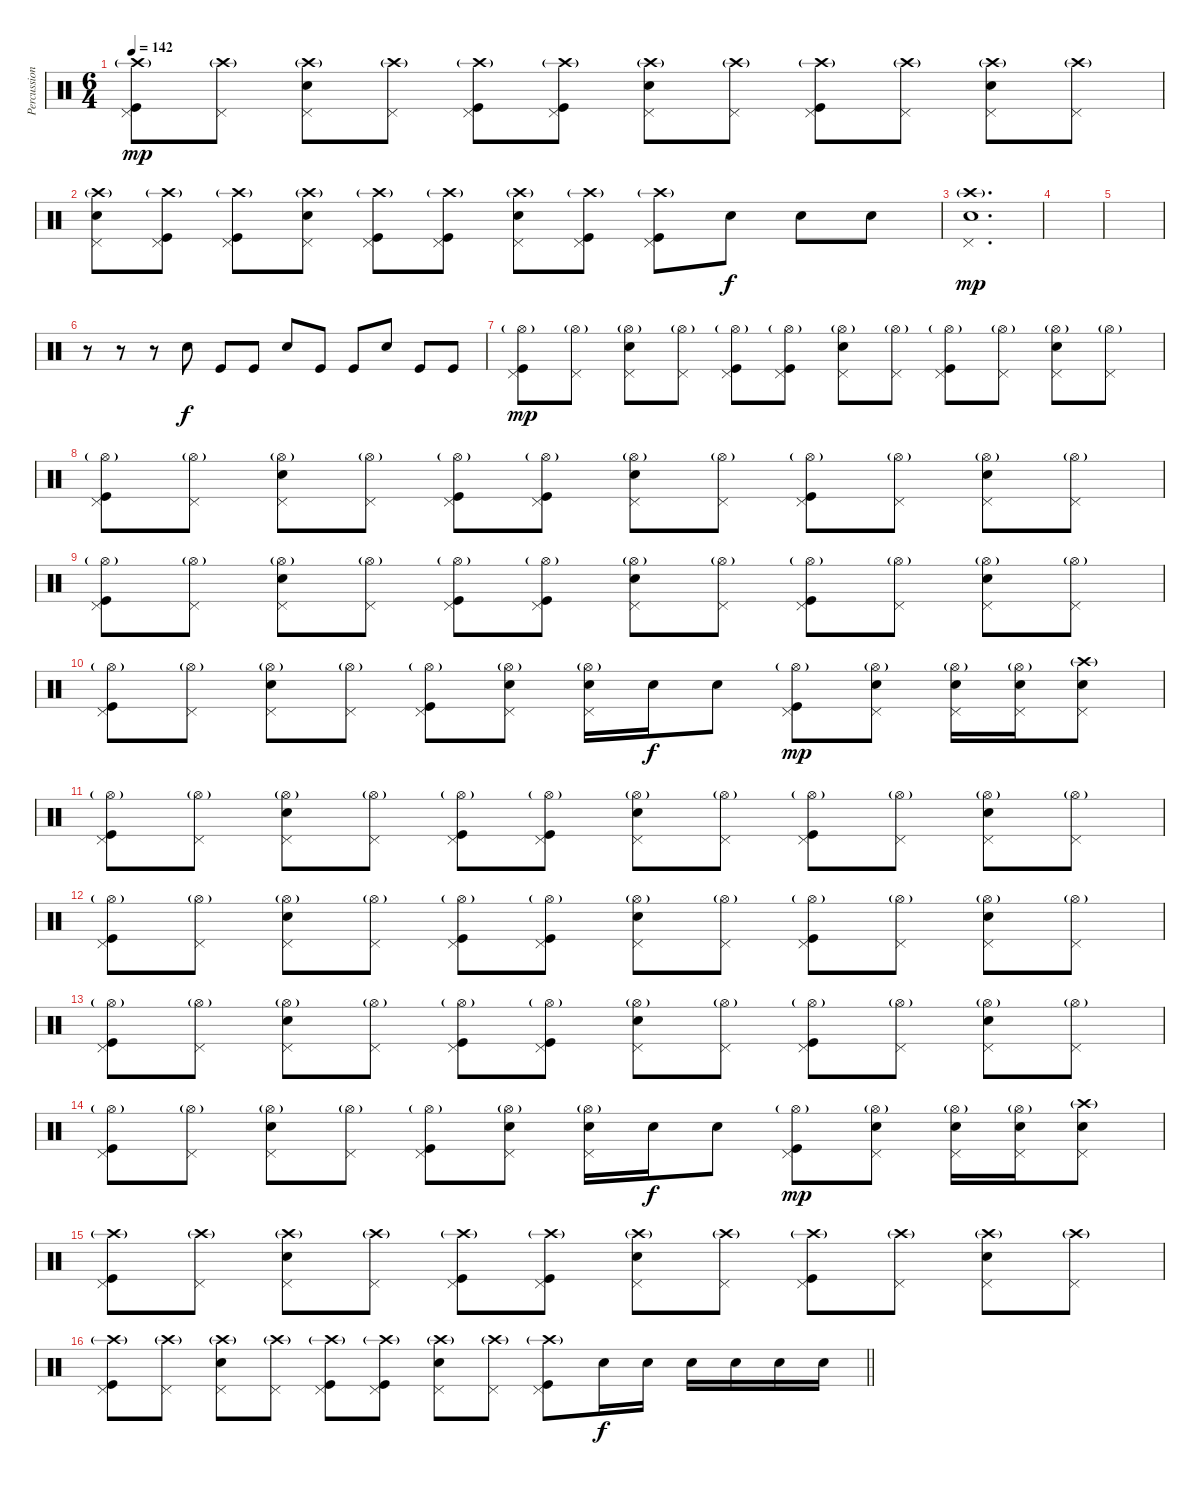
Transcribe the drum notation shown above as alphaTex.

\track ("Percussions" "Percussion") {instrument percussion}
\staff {score}
\articulation defaults
\ts (6 4)
\tempo 142
\clef neutral
\ks c
("Crash high (hit)"{g} "Pedal Hi-Hat (hit)" "Kick (hit)").8{dy mp} ("Crash high (hit)"{g} "Pedal Hi-Hat (hit)").8 ("Crash high (hit)"{g} "Pedal Hi-Hat (hit)" "Electric Snare (hit)").8 ("Crash high (hit)"{g} "Pedal Hi-Hat (hit)").8 ("Crash high (hit)"{g} "Pedal Hi-Hat (hit)" "Kick (hit)").8 ("Crash high (hit)"{g} "Pedal Hi-Hat (hit)" "Kick (hit)").8 ("Crash high (hit)"{g} "Pedal Hi-Hat (hit)" "Electric Snare (hit)").8 ("Crash high (hit)"{g} "Pedal Hi-Hat (hit)").8 ("Crash high (hit)"{g} "Pedal Hi-Hat (hit)" "Kick (hit)").8 ("Crash high (hit)"{g} "Pedal Hi-Hat (hit)").8 ("Crash high (hit)"{g} "Pedal Hi-Hat (hit)" "Electric Snare (hit)").8 ("Crash high (hit)"{g} "Pedal Hi-Hat (hit)").8 |
("Crash high (hit)"{g} "Pedal Hi-Hat (hit)" "Electric Snare (hit)").8 ("Crash high (hit)"{g} "Pedal Hi-Hat (hit)" "Kick (hit)").8 ("Crash high (hit)"{g} "Pedal Hi-Hat (hit)" "Kick (hit)").8 ("Crash high (hit)"{g} "Pedal Hi-Hat (hit)" "Electric Snare (hit)").8 ("Crash high (hit)"{g} "Pedal Hi-Hat (hit)" "Kick (hit)").8 ("Crash high (hit)"{g} "Pedal Hi-Hat (hit)" "Kick (hit)").8 ("Crash high (hit)"{g} "Pedal Hi-Hat (hit)" "Electric Snare (hit)").8 ("Crash high (hit)"{g} "Pedal Hi-Hat (hit)" "Kick (hit)").8 ("Crash high (hit)"{g} "Pedal Hi-Hat (hit)" "Kick (hit)").8 "Snare (hit) 2".8{dy f} "Snare (hit) 2".8 "Snare (hit) 2".8 |
("Crash high (hit)"{g} "Pedal Hi-Hat (hit)" "Electric Snare (hit)").1{d dy mp} |
|
|
r.8 r.8 r.8 "Electric Snare (hit)".8{dy f} "Kick (hit)".8 "Kick (hit)".8 "Electric Snare (hit)".8 "Kick (hit)".8 "Kick (hit)".8 "Electric Snare (hit)".8 "Kick (hit)".8 "Kick (hit)".8 |
("Hi-Hat (open)"{g} "Pedal Hi-Hat (hit)" "Kick (hit)").8{dy mp} ("Hi-Hat (open)"{g} "Pedal Hi-Hat (hit)").8 ("Hi-Hat (open)"{g} "Pedal Hi-Hat (hit)" "Electric Snare (hit)").8 ("Hi-Hat (open)"{g} "Pedal Hi-Hat (hit)").8 ("Hi-Hat (open)"{g} "Pedal Hi-Hat (hit)" "Kick (hit)").8 ("Hi-Hat (open)"{g} "Pedal Hi-Hat (hit)" "Kick (hit)").8 ("Hi-Hat (open)"{g} "Pedal Hi-Hat (hit)" "Electric Snare (hit)").8 ("Hi-Hat (open)"{g} "Pedal Hi-Hat (hit)").8 ("Hi-Hat (open)"{g} "Pedal Hi-Hat (hit)" "Kick (hit)").8 ("Hi-Hat (open)"{g} "Pedal Hi-Hat (hit)").8 ("Hi-Hat (open)"{g} "Pedal Hi-Hat (hit)" "Electric Snare (hit)").8 ("Hi-Hat (open)"{g} "Pedal Hi-Hat (hit)").8 |
("Hi-Hat (open)"{g} "Pedal Hi-Hat (hit)" "Kick (hit)").8 ("Hi-Hat (open)"{g} "Pedal Hi-Hat (hit)").8 ("Hi-Hat (open)"{g} "Pedal Hi-Hat (hit)" "Electric Snare (hit)").8 ("Hi-Hat (open)"{g} "Pedal Hi-Hat (hit)").8 ("Hi-Hat (open)"{g} "Pedal Hi-Hat (hit)" "Kick (hit)").8 ("Hi-Hat (open)"{g} "Pedal Hi-Hat (hit)" "Kick (hit)").8 ("Hi-Hat (open)"{g} "Pedal Hi-Hat (hit)" "Electric Snare (hit)").8 ("Hi-Hat (open)"{g} "Pedal Hi-Hat (hit)").8 ("Hi-Hat (open)"{g} "Pedal Hi-Hat (hit)" "Kick (hit)").8 ("Hi-Hat (open)"{g} "Pedal Hi-Hat (hit)").8 ("Hi-Hat (open)"{g} "Pedal Hi-Hat (hit)" "Electric Snare (hit)").8 ("Hi-Hat (open)"{g} "Pedal Hi-Hat (hit)").8 |
("Hi-Hat (open)"{g} "Pedal Hi-Hat (hit)" "Kick (hit)").8 ("Hi-Hat (open)"{g} "Pedal Hi-Hat (hit)").8 ("Hi-Hat (open)"{g} "Pedal Hi-Hat (hit)" "Electric Snare (hit)").8 ("Hi-Hat (open)"{g} "Pedal Hi-Hat (hit)").8 ("Hi-Hat (open)"{g} "Pedal Hi-Hat (hit)" "Kick (hit)").8 ("Hi-Hat (open)"{g} "Pedal Hi-Hat (hit)" "Kick (hit)").8 ("Hi-Hat (open)"{g} "Pedal Hi-Hat (hit)" "Electric Snare (hit)").8 ("Hi-Hat (open)"{g} "Pedal Hi-Hat (hit)").8 ("Hi-Hat (open)"{g} "Pedal Hi-Hat (hit)" "Kick (hit)").8 ("Hi-Hat (open)"{g} "Pedal Hi-Hat (hit)").8 ("Hi-Hat (open)"{g} "Pedal Hi-Hat (hit)" "Electric Snare (hit)").8 ("Hi-Hat (open)"{g} "Pedal Hi-Hat (hit)").8 |
("Hi-Hat (open)"{g} "Pedal Hi-Hat (hit)" "Kick (hit)").8 ("Hi-Hat (open)"{g} "Pedal Hi-Hat (hit)").8 ("Hi-Hat (open)"{g} "Pedal Hi-Hat (hit)" "Electric Snare (hit)").8 ("Hi-Hat (open)"{g} "Pedal Hi-Hat (hit)").8 ("Hi-Hat (open)"{g} "Pedal Hi-Hat (hit)" "Kick (hit)").8 ("Hi-Hat (open)"{g} "Pedal Hi-Hat (hit)" "Electric Snare (hit)").8 ("Hi-Hat (open)"{g} "Pedal Hi-Hat (hit)" "Electric Snare (hit)").16 "Electric Snare (hit)".16{dy f} "Electric Snare (hit)".8 ("Hi-Hat (open)"{g} "Pedal Hi-Hat (hit)" "Kick (hit)").8{dy mp} ("Hi-Hat (open)"{g} "Pedal Hi-Hat (hit)" "Electric Snare (hit)").8 ("Hi-Hat (open)"{g} "Pedal Hi-Hat (hit)" "Electric Snare (hit)").16 ("Hi-Hat (open)"{g} "Pedal Hi-Hat (hit)" "Electric Snare (hit)").16 ("Crash high (hit)"{g} "Pedal Hi-Hat (hit)" "Electric Snare (hit)").8 |
("Hi-Hat (open)"{g} "Pedal Hi-Hat (hit)" "Kick (hit)").8 ("Hi-Hat (open)"{g} "Pedal Hi-Hat (hit)").8 ("Hi-Hat (open)"{g} "Pedal Hi-Hat (hit)" "Electric Snare (hit)").8 ("Hi-Hat (open)"{g} "Pedal Hi-Hat (hit)").8 ("Hi-Hat (open)"{g} "Pedal Hi-Hat (hit)" "Kick (hit)").8 ("Hi-Hat (open)"{g} "Pedal Hi-Hat (hit)" "Kick (hit)").8 ("Hi-Hat (open)"{g} "Pedal Hi-Hat (hit)" "Electric Snare (hit)").8 ("Hi-Hat (open)"{g} "Pedal Hi-Hat (hit)").8 ("Hi-Hat (open)"{g} "Pedal Hi-Hat (hit)" "Kick (hit)").8 ("Hi-Hat (open)"{g} "Pedal Hi-Hat (hit)").8 ("Hi-Hat (open)"{g} "Pedal Hi-Hat (hit)" "Electric Snare (hit)").8 ("Hi-Hat (open)"{g} "Pedal Hi-Hat (hit)").8 |
("Hi-Hat (open)"{g} "Pedal Hi-Hat (hit)" "Kick (hit)").8 ("Hi-Hat (open)"{g} "Pedal Hi-Hat (hit)").8 ("Hi-Hat (open)"{g} "Pedal Hi-Hat (hit)" "Electric Snare (hit)").8 ("Hi-Hat (open)"{g} "Pedal Hi-Hat (hit)").8 ("Hi-Hat (open)"{g} "Pedal Hi-Hat (hit)" "Kick (hit)").8 ("Hi-Hat (open)"{g} "Pedal Hi-Hat (hit)" "Kick (hit)").8 ("Hi-Hat (open)"{g} "Pedal Hi-Hat (hit)" "Electric Snare (hit)").8 ("Hi-Hat (open)"{g} "Pedal Hi-Hat (hit)").8 ("Hi-Hat (open)"{g} "Pedal Hi-Hat (hit)" "Kick (hit)").8 ("Hi-Hat (open)"{g} "Pedal Hi-Hat (hit)").8 ("Hi-Hat (open)"{g} "Pedal Hi-Hat (hit)" "Electric Snare (hit)").8 ("Hi-Hat (open)"{g} "Pedal Hi-Hat (hit)").8 |
("Hi-Hat (open)"{g} "Pedal Hi-Hat (hit)" "Kick (hit)").8 ("Hi-Hat (open)"{g} "Pedal Hi-Hat (hit)").8 ("Hi-Hat (open)"{g} "Pedal Hi-Hat (hit)" "Electric Snare (hit)").8 ("Hi-Hat (open)"{g} "Pedal Hi-Hat (hit)").8 ("Hi-Hat (open)"{g} "Pedal Hi-Hat (hit)" "Kick (hit)").8 ("Hi-Hat (open)"{g} "Pedal Hi-Hat (hit)" "Kick (hit)").8 ("Hi-Hat (open)"{g} "Pedal Hi-Hat (hit)" "Electric Snare (hit)").8 ("Hi-Hat (open)"{g} "Pedal Hi-Hat (hit)").8 ("Hi-Hat (open)"{g} "Pedal Hi-Hat (hit)" "Kick (hit)").8 ("Hi-Hat (open)"{g} "Pedal Hi-Hat (hit)").8 ("Hi-Hat (open)"{g} "Pedal Hi-Hat (hit)" "Electric Snare (hit)").8 ("Hi-Hat (open)"{g} "Pedal Hi-Hat (hit)").8 |
("Hi-Hat (open)"{g} "Pedal Hi-Hat (hit)" "Kick (hit)").8 ("Hi-Hat (open)"{g} "Pedal Hi-Hat (hit)").8 ("Hi-Hat (open)"{g} "Pedal Hi-Hat (hit)" "Electric Snare (hit)").8 ("Hi-Hat (open)"{g} "Pedal Hi-Hat (hit)").8 ("Hi-Hat (open)"{g} "Pedal Hi-Hat (hit)" "Kick (hit)").8 ("Hi-Hat (open)"{g} "Pedal Hi-Hat (hit)" "Electric Snare (hit)").8 ("Hi-Hat (open)"{g} "Pedal Hi-Hat (hit)" "Electric Snare (hit)").16 "Electric Snare (hit)".16{dy f} "Electric Snare (hit)".8 ("Hi-Hat (open)"{g} "Pedal Hi-Hat (hit)" "Kick (hit)").8{dy mp} ("Hi-Hat (open)"{g} "Pedal Hi-Hat (hit)" "Electric Snare (hit)").8 ("Hi-Hat (open)"{g} "Pedal Hi-Hat (hit)" "Electric Snare (hit)").16 ("Hi-Hat (open)"{g} "Pedal Hi-Hat (hit)" "Electric Snare (hit)").16 ("Crash high (hit)"{g} "Pedal Hi-Hat (hit)" "Electric Snare (hit)").8 |
("Crash high (hit)"{g} "Pedal Hi-Hat (hit)" "Kick (hit)").8 ("Crash high (hit)"{g} "Pedal Hi-Hat (hit)").8 ("Crash high (hit)"{g} "Pedal Hi-Hat (hit)" "Electric Snare (hit)").8 ("Crash high (hit)"{g} "Pedal Hi-Hat (hit)").8 ("Crash high (hit)"{g} "Pedal Hi-Hat (hit)" "Kick (hit)").8 ("Crash high (hit)"{g} "Pedal Hi-Hat (hit)" "Kick (hit)").8 ("Crash high (hit)"{g} "Pedal Hi-Hat (hit)" "Electric Snare (hit)").8 ("Crash high (hit)"{g} "Pedal Hi-Hat (hit)").8 ("Crash high (hit)"{g} "Pedal Hi-Hat (hit)" "Kick (hit)").8 ("Crash high (hit)"{g} "Pedal Hi-Hat (hit)").8 ("Crash high (hit)"{g} "Pedal Hi-Hat (hit)" "Electric Snare (hit)").8 ("Crash high (hit)"{g} "Pedal Hi-Hat (hit)").8 |
\barLineRight lightlight
("Crash high (hit)"{g} "Pedal Hi-Hat (hit)" "Kick (hit)").8 ("Crash high (hit)"{g} "Pedal Hi-Hat (hit)").8 ("Crash high (hit)"{g} "Pedal Hi-Hat (hit)" "Electric Snare (hit)").8 ("Crash high (hit)"{g} "Pedal Hi-Hat (hit)").8 ("Crash high (hit)"{g} "Pedal Hi-Hat (hit)" "Kick (hit)").8 ("Crash high (hit)"{g} "Pedal Hi-Hat (hit)" "Kick (hit)").8 ("Crash high (hit)"{g} "Pedal Hi-Hat (hit)" "Electric Snare (hit)").8 ("Crash high (hit)"{g} "Pedal Hi-Hat (hit)").8 ("Crash high (hit)"{g} "Pedal Hi-Hat (hit)" "Kick (hit)").8 "Electric Snare (hit)".16{dy f} "Electric Snare (hit)".16 "Electric Snare (hit)".16 "Electric Snare (hit)".16 "Electric Snare (hit)".16 "Electric Snare (hit)".16
